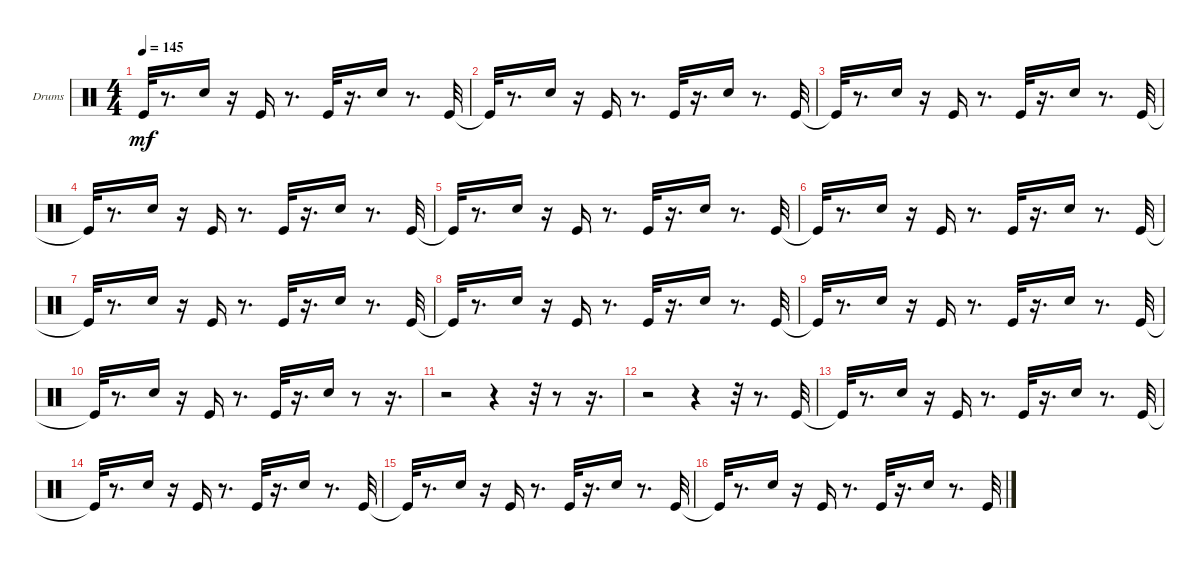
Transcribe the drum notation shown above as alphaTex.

\bracketExtendMode groupsimilarinstruments
\firstSystemTrackNameOrientation horizontal
\otherSystemsTrackNameOrientation horizontal
\track ("Drums" "Drums") {instrument percussion}
\staff {score}
\articulation defaults
\ts (4 4)
\tempo 145
\clef neutral
\ks c "Kick (hit)"{t}.32{dy mf}
r.8{d} "Snare (hit) 2".16 r.16 "Kick (hit)".16 r.8{d} "Kick (hit)".32 r.16{d} "Snare (hit) 2".16 r.8{d} "Kick (hit)".32 |
"Kick (hit)"{t}.32 r.8{d} "Snare (hit) 2".16 r.16 "Kick (hit)".16 r.8{d} "Kick (hit)".32 r.16{d} "Snare (hit) 2".16 r.8{d} "Kick (hit)".32 |
"Kick (hit)"{t}.32 r.8{d} "Snare (hit) 2".16 r.16 "Kick (hit)".16 r.8{d} "Kick (hit)".32 r.16{d} "Snare (hit) 2".16 r.8{d} "Kick (hit)".32 |
"Kick (hit)"{t}.32 r.8{d} "Snare (hit) 2".16 r.16 "Kick (hit)".16 r.8{d} "Kick (hit)".32 r.16{d} "Snare (hit) 2".16 r.8{d} "Kick (hit)".32 |
"Kick (hit)"{t}.32 r.8{d} "Snare (hit) 2".16 r.16 "Kick (hit)".16 r.8{d} "Kick (hit)".32 r.16{d} "Snare (hit) 2".16 r.8{d} "Kick (hit)".32 |
"Kick (hit)"{t}.32 r.8{d} "Snare (hit) 2".16 r.16 "Kick (hit)".16 r.8{d} "Kick (hit)".32 r.16{d} "Snare (hit) 2".16 r.8{d} "Kick (hit)".32 |
"Kick (hit)"{t}.32 r.8{d} "Snare (hit) 2".16 r.16 "Kick (hit)".16 r.8{d} "Kick (hit)".32 r.16{d} "Snare (hit) 2".16 r.8{d} "Kick (hit)".32 |
"Kick (hit)"{t}.32 r.8{d} "Snare (hit) 2".16 r.16 "Kick (hit)".16 r.8{d} "Kick (hit)".32 r.16{d} "Snare (hit) 2".16 r.8{d} "Kick (hit)".32 |
"Kick (hit)"{t}.32 r.8{d} "Snare (hit) 2".16 r.16 "Kick (hit)".16 r.8{d} "Kick (hit)".32 r.16{d} "Snare (hit) 2".16 r.8{d} "Kick (hit)".32 |
"Kick (hit)"{t}.32 r.8{d} "Snare (hit) 2".16 r.16 "Kick (hit)".16 r.8{d} "Kick (hit)".32 r.16{d} "Snare (hit) 2".16 r.8 r.16{d} |
r.2 r.4 r.32 r.8 r.16{d} |
r.2 r.4 r.32 r.8{d} "Kick (hit)".32 |
"Kick (hit)"{t}.32 r.8{d} "Snare (hit) 2".16 r.16 "Kick (hit)".16 r.8{d} "Kick (hit)".32 r.16{d} "Snare (hit) 2".16 r.8{d} "Kick (hit)".32 |
"Kick (hit)"{t}.32 r.8{d} "Snare (hit) 2".16 r.16 "Kick (hit)".16 r.8{d} "Kick (hit)".32 r.16{d} "Snare (hit) 2".16 r.8{d} "Kick (hit)".32 |
"Kick (hit)"{t}.32 r.8{d} "Snare (hit) 2".16 r.16 "Kick (hit)".16 r.8{d} "Kick (hit)".32 r.16{d} "Snare (hit) 2".16 r.8{d} "Kick (hit)".32 |
"Kick (hit)"{t}.32 r.8{d} "Snare (hit) 2".16 r.16 "Kick (hit)".16 r.8{d} "Kick (hit)".32 r.16{d} "Snare (hit) 2".16 r.8{d} "Kick (hit)".32
